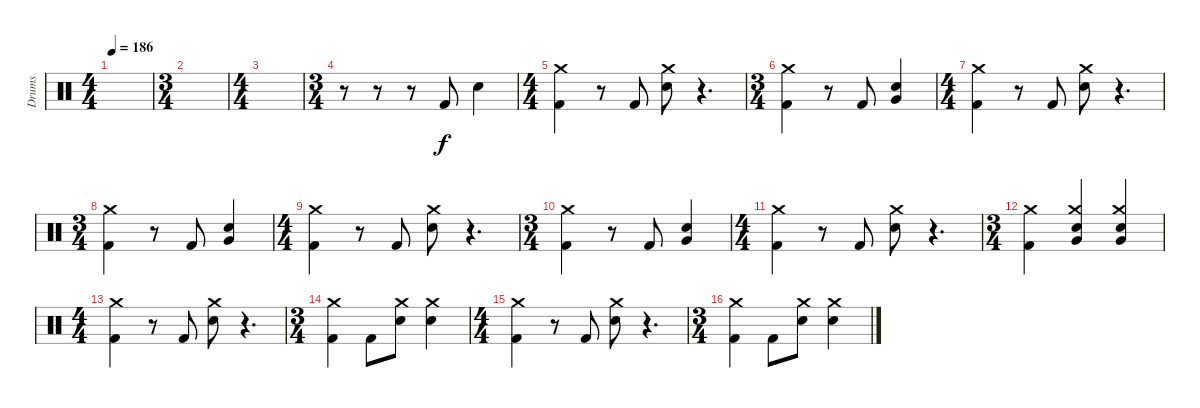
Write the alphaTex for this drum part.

\track ("Drums" "Drums") {instrument percussion}
\staff {score}
\articulation defaults
\ts (4 4)
\tempo 186
\clef neutral
\ks c
|
\ts (3 4)
|
\ts (4 4)
|
\ts (3 4)
r.8 r.8 r.8 "Kick (hit) 2".8 "Snare (hit) 2".4 |
\ts (4 4)
("Crash medium (hit)" "Kick (hit) 2").4 r.8 "Kick (hit) 2".8 ("Crash medium (hit)" "Snare (hit) 2").8 r.4{d} |
\ts (3 4)
("Crash medium (hit)" "Kick (hit) 2").4 r.8 "Kick (hit) 2".8 ("Very Low Tom (hit)" "Snare (hit) 2").4 |
\ts (4 4)
("Crash medium (hit)" "Kick (hit) 2").4 r.8 "Kick (hit) 2".8 ("Crash medium (hit)" "Snare (hit) 2").8 r.4{d} |
\ts (3 4)
("Crash medium (hit)" "Kick (hit) 2").4 r.8 "Kick (hit) 2".8 ("Very Low Tom (hit)" "Snare (hit) 2").4 |
\ts (4 4)
("Crash medium (hit)" "Kick (hit) 2").4 r.8 "Kick (hit) 2".8 ("Crash medium (hit)" "Snare (hit) 2").8 r.4{d} |
\ts (3 4)
("Crash medium (hit)" "Kick (hit) 2").4 r.8 "Kick (hit) 2".8 ("Very Low Tom (hit)" "Snare (hit) 2").4 |
\ts (4 4)
("Crash medium (hit)" "Kick (hit) 2").4 r.8 "Kick (hit) 2".8 ("Crash medium (hit)" "Snare (hit) 2").8 r.4{d} |
\ts (3 4)
("Crash medium (hit)" "Kick (hit) 2").4 ("Crash medium (hit)" "Very Low Tom (hit)" "Snare (hit) 2").4 ("Crash medium (hit)" "Very Low Tom (hit)" "Snare (hit) 2").4 |
\ts (4 4)
("Crash medium (hit)" "Kick (hit) 2").4 r.8 "Kick (hit) 2".8 ("Crash medium (hit)" "Snare (hit) 2").8 r.4{d} |
\ts (3 4)
("Crash medium (hit)" "Kick (hit) 2").4 "Kick (hit) 2".8 ("Crash medium (hit)" "Snare (hit) 2").8 ("Crash medium (hit)" "Snare (hit) 2").4 |
\ts (4 4)
("Crash medium (hit)" "Kick (hit) 2").4 r.8 "Kick (hit) 2".8 ("Crash medium (hit)" "Snare (hit) 2").8 r.4{d} |
\ts (3 4)
("Crash medium (hit)" "Kick (hit) 2").4 "Kick (hit) 2".8 ("Crash medium (hit)" "Snare (hit) 2").8 ("Crash medium (hit)" "Snare (hit) 2").4
